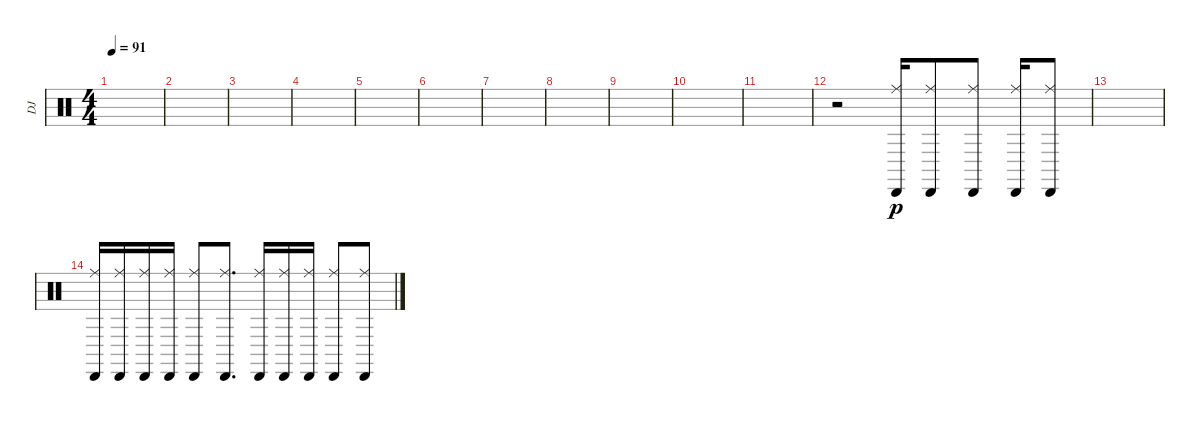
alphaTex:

\track ("DJ" "DJ") {instrument percussion}
\staff {score}
\articulation defaults
\ts (4 4)
\tempo 91
\clef neutral
\ks c
|
|
|
|
|
|
|
|
|
|
|
r.2{volume 10} ("Cabasa (hit)" "Ride (middle)").16{dy p} ("Cabasa (hit)" "Ride (middle)").8 ("Cabasa (hit)" "Ride (middle)").8 ("Cabasa (hit)" "Ride (middle)").16 ("Cabasa (hit)" "Ride (middle)").8 |
|
("Cabasa (hit)" "Ride (middle)").16 ("Cabasa (hit)" "Ride (middle)").16 ("Cabasa (hit)" "Ride (middle)").16 ("Cabasa (hit)" "Ride (middle)").16 ("Cabasa (hit)" "Ride (middle)").8 ("Cabasa (hit)" "Ride (middle)").8{d} ("Cabasa (hit)" "Ride (middle)").16 ("Cabasa (hit)" "Ride (middle)").16 ("Cabasa (hit)" "Ride (middle)").16 ("Cabasa (hit)" "Ride (middle)").8 ("Cabasa (hit)" "Ride (middle)").8
